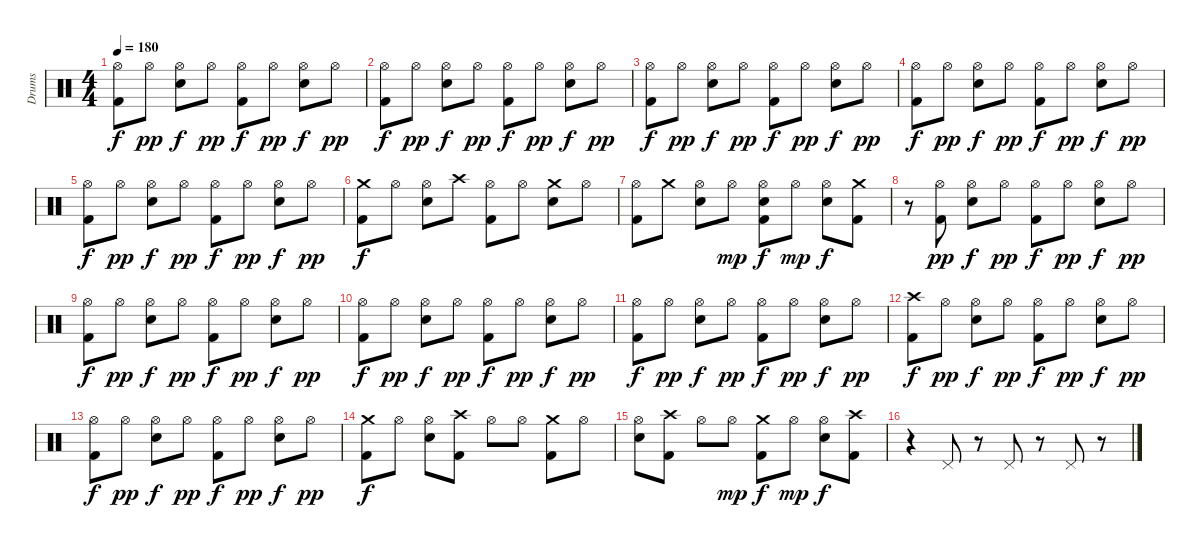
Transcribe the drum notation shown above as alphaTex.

\track ("Drums" "Drums") {instrument percussion}
\staff {score}
\articulation defaults
\ts (4 4)
\tempo 180
\clef neutral
\ks c
("Hi-Hat (open)" "Kick (hit) 2").8{dy f} "Hi-Hat (open)".8{dy pp} ("Hi-Hat (open)" "Electric Snare (hit)").8{dy f} "Hi-Hat (open)".8{dy pp} ("Hi-Hat (open)" "Kick (hit) 2").8{dy f} "Hi-Hat (open)".8{dy pp} ("Hi-Hat (open)" "Electric Snare (hit)").8{dy f} "Hi-Hat (open)".8{dy pp} |
("Hi-Hat (open)" "Kick (hit) 2").8{dy f} "Hi-Hat (open)".8{dy pp} ("Hi-Hat (open)" "Electric Snare (hit)").8{dy f} "Hi-Hat (open)".8{dy pp} ("Hi-Hat (open)" "Kick (hit) 2").8{dy f} "Hi-Hat (open)".8{dy pp} ("Hi-Hat (open)" "Electric Snare (hit)").8{dy f} "Hi-Hat (open)".8{dy pp} |
("Hi-Hat (open)" "Kick (hit) 2").8{dy f} "Hi-Hat (open)".8{dy pp} ("Hi-Hat (open)" "Electric Snare (hit)").8{dy f} "Hi-Hat (open)".8{dy pp} ("Hi-Hat (open)" "Kick (hit) 2").8{dy f} "Hi-Hat (open)".8{dy pp} ("Hi-Hat (open)" "Electric Snare (hit)").8{dy f} "Hi-Hat (open)".8{dy pp} |
("Hi-Hat (open)" "Kick (hit) 2").8{dy f} "Hi-Hat (open)".8{dy pp} ("Hi-Hat (open)" "Electric Snare (hit)").8{dy f} "Hi-Hat (open)".8{dy pp} ("Hi-Hat (open)" "Kick (hit) 2").8{dy f} "Hi-Hat (open)".8{dy pp} ("Hi-Hat (open)" "Electric Snare (hit)").8{dy f} "Hi-Hat (open)".8{dy pp} |
("Hi-Hat (open)" "Kick (hit) 2").8{dy f} "Hi-Hat (open)".8{dy pp} ("Hi-Hat (open)" "Electric Snare (hit)").8{dy f} "Hi-Hat (open)".8{dy pp} ("Hi-Hat (open)" "Kick (hit) 2").8{dy f} "Hi-Hat (open)".8{dy pp} ("Hi-Hat (open)" "Electric Snare (hit)").8{dy f} "Hi-Hat (open)".8{dy pp} |
("Crash medium (hit)" "Kick (hit) 2").8{dy f} "Hi-Hat (open)".8 ("Hi-Hat (open)" "Electric Snare (hit)").8 "Crash high (hit)".8 ("Kick (hit) 2" "Hi-Hat (open)").8 "Hi-Hat (open)".8 ("Electric Snare (hit)" "Crash medium (hit)").8 "Hi-Hat (open)".8 |
("Kick (hit) 2" "Hi-Hat (open)").8 "Crash medium (hit)".8 ("Electric Snare (hit)" "Hi-Hat (open)").8 "Hi-Hat (open)".8{dy mp} ("Electric Snare (hit)" "Hi-Hat (open)" "Kick (hit) 2").8{dy f} "Hi-Hat (open)".8{dy mp} ("Hi-Hat (open)" "Electric Snare (hit)").8{dy f} ("Crash medium (hit)" "Kick (hit) 2").8 |
r.8 ("Hi-Hat (open)" "Kick (hit) 2").8{dy pp} ("Hi-Hat (open)" "Electric Snare (hit)").8{dy f} "Hi-Hat (open)".8{dy pp} ("Hi-Hat (open)" "Kick (hit) 2").8{dy f} "Hi-Hat (open)".8{dy pp} ("Hi-Hat (open)" "Electric Snare (hit)").8{dy f} "Hi-Hat (open)".8{dy pp} |
("Hi-Hat (open)" "Kick (hit) 2").8{dy f} "Hi-Hat (open)".8{dy pp} ("Hi-Hat (open)" "Electric Snare (hit)").8{dy f} "Hi-Hat (open)".8{dy pp} ("Hi-Hat (open)" "Kick (hit) 2").8{dy f} "Hi-Hat (open)".8{dy pp} ("Hi-Hat (open)" "Electric Snare (hit)").8{dy f} "Hi-Hat (open)".8{dy pp} |
("Hi-Hat (open)" "Kick (hit) 2").8{dy f} "Hi-Hat (open)".8{dy pp} ("Hi-Hat (open)" "Electric Snare (hit)").8{dy f} "Hi-Hat (open)".8{dy pp} ("Hi-Hat (open)" "Kick (hit) 2").8{dy f} "Hi-Hat (open)".8{dy pp} ("Hi-Hat (open)" "Electric Snare (hit)").8{dy f} "Hi-Hat (open)".8{dy pp} |
("Hi-Hat (open)" "Kick (hit) 2").8{dy f} "Hi-Hat (open)".8{dy pp} ("Hi-Hat (open)" "Electric Snare (hit)").8{dy f} "Hi-Hat (open)".8{dy pp} ("Hi-Hat (open)" "Kick (hit) 2").8{dy f} "Hi-Hat (open)".8{dy pp} ("Hi-Hat (open)" "Electric Snare (hit)").8{dy f} "Hi-Hat (open)".8{dy pp} |
("Crash high (hit)" "Kick (hit) 2").8{dy f} "Hi-Hat (open)".8{dy pp} ("Hi-Hat (open)" "Electric Snare (hit)").8{dy f} "Hi-Hat (open)".8{dy pp} ("Hi-Hat (open)" "Kick (hit) 2").8{dy f} "Hi-Hat (open)".8{dy pp} ("Hi-Hat (open)" "Electric Snare (hit)").8{dy f} "Hi-Hat (open)".8{dy pp} |
("Hi-Hat (open)" "Kick (hit) 2").8{dy f} "Hi-Hat (open)".8{dy pp} ("Hi-Hat (open)" "Electric Snare (hit)").8{dy f} "Hi-Hat (open)".8{dy pp} ("Hi-Hat (open)" "Kick (hit) 2").8{dy f} "Hi-Hat (open)".8{dy pp} ("Hi-Hat (open)" "Electric Snare (hit)").8{dy f} "Hi-Hat (open)".8{dy pp} |
("Crash medium (hit)" "Kick (hit) 2").8{dy f} "Hi-Hat (open)".8 ("Hi-Hat (open)" "Electric Snare (hit)").8 ("Kick (hit) 2" "Crash high (hit)").8 "Hi-Hat (open)".8 "Hi-Hat (open)".8 ("Kick (hit) 2" "Crash medium (hit)").8 "Hi-Hat (open)".8 |
("Electric Snare (hit)" "Hi-Hat (open)").8 ("Crash high (hit)" "Kick (hit) 2").8 "Hi-Hat (open)".8 "Hi-Hat (open)".8{dy mp} ("Crash medium (hit)" "Kick (hit) 2").8{dy f} "Hi-Hat (open)".8{dy mp} ("Hi-Hat (open)" "Electric Snare (hit)").8{dy f} ("Crash high (hit)" "Kick (hit) 2").8 |
r.4 "Pedal Hi-Hat (hit)".8 r.8 "Pedal Hi-Hat (hit)".8 r.8 "Pedal Hi-Hat (hit)".8 r.8
